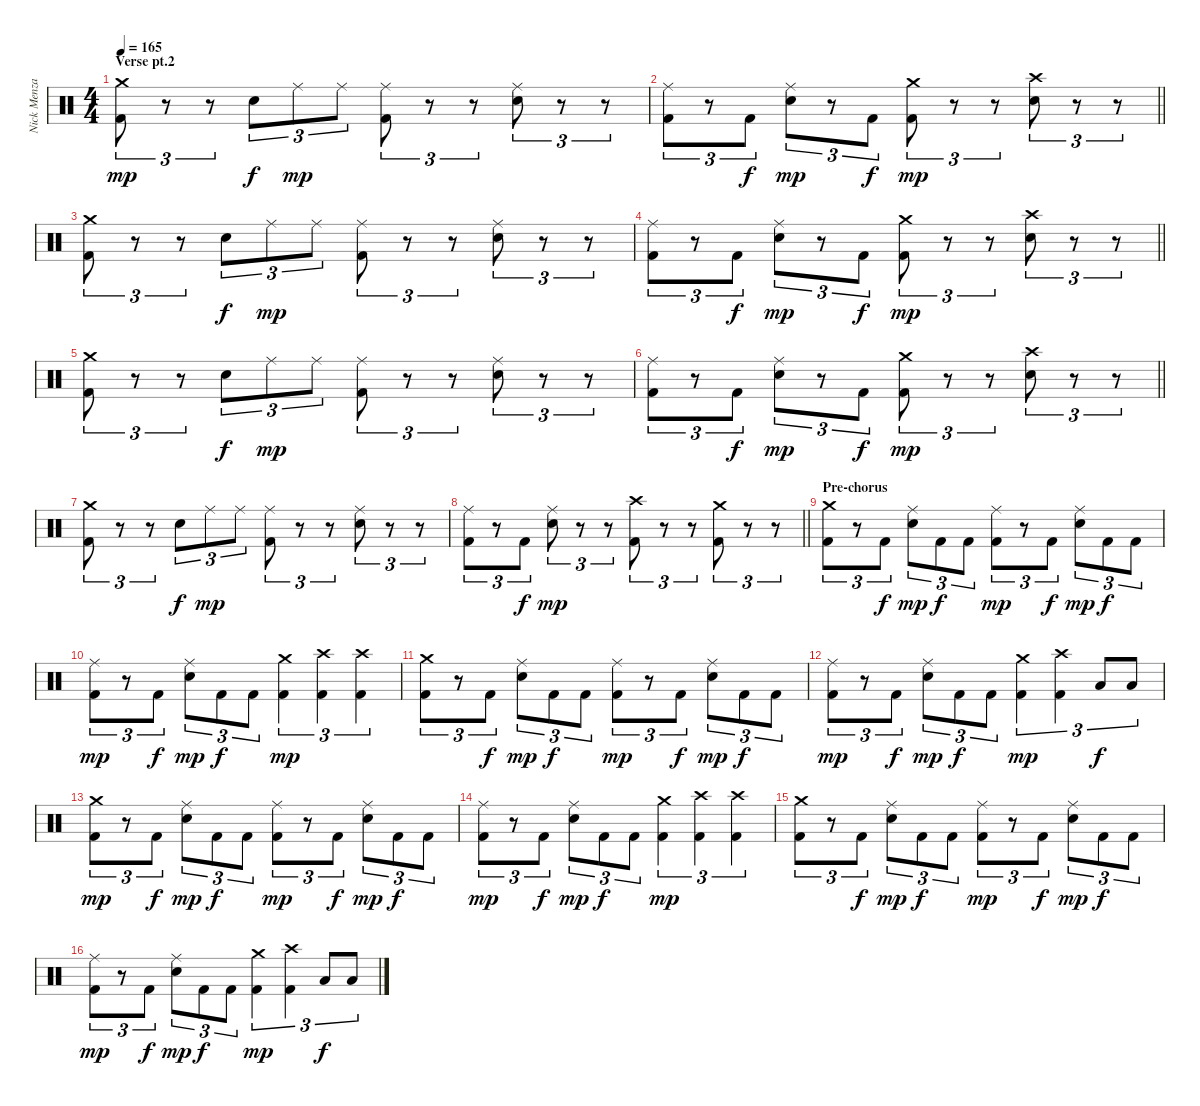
\track ("Nick Menza" "Nick Menza") {solo instrument percussion}
\staff {score}
\articulation defaults
\ts (4 4)
\section ("" "Verse pt.2")
\tempo 165
\clef neutral
\ks c
("Crash medium (hit)" "Kick (hit) 2").8{tu (3 2) dy mp} r.8{tu (3 2)} r.8{tu (3 2)} "Electric Snare (hit)".8{tu (3 2) dy f} "Ride (middle)".8{tu (3 2) dy mp} "Ride (middle)".8{tu (3 2)} ("Ride (middle)" "Kick (hit) 2").8{tu (3 2)} r.8{tu (3 2)} r.8{tu (3 2)} ("Ride (middle)" "Electric Snare (hit)").8{tu (3 2)} r.8{tu (3 2)} r.8{tu (3 2)} |
\barLineRight lightlight
("Ride (middle)" "Kick (hit) 2").8{tu (3 2)} r.8{tu (3 2)} "Kick (hit) 2".8{tu (3 2) dy f} ("Ride (middle)" "Electric Snare (hit)").8{tu (3 2) dy mp} r.8{tu (3 2)} "Kick (hit) 2".8{tu (3 2) dy f} ("Crash medium (hit)" "Kick (hit) 2").8{tu (3 2) dy mp} r.8{tu (3 2)} r.8{tu (3 2)} ("Crash high (hit)" "Electric Snare (hit)").8{tu (3 2)} r.8{tu (3 2)} r.8{tu (3 2)} |
("Crash medium (hit)" "Kick (hit) 2").8{tu (3 2)} r.8{tu (3 2)} r.8{tu (3 2)} "Electric Snare (hit)".8{tu (3 2) dy f} "Ride (middle)".8{tu (3 2) dy mp} "Ride (middle)".8{tu (3 2)} ("Ride (middle)" "Kick (hit) 2").8{tu (3 2)} r.8{tu (3 2)} r.8{tu (3 2)} ("Ride (middle)" "Electric Snare (hit)").8{tu (3 2)} r.8{tu (3 2)} r.8{tu (3 2)} |
\barLineRight lightlight
("Ride (middle)" "Kick (hit) 2").8{tu (3 2)} r.8{tu (3 2)} "Kick (hit) 2".8{tu (3 2) dy f} ("Ride (middle)" "Electric Snare (hit)").8{tu (3 2) dy mp} r.8{tu (3 2)} "Kick (hit) 2".8{tu (3 2) dy f} ("Crash medium (hit)" "Kick (hit) 2").8{tu (3 2) dy mp} r.8{tu (3 2)} r.8{tu (3 2)} ("Crash high (hit)" "Electric Snare (hit)").8{tu (3 2)} r.8{tu (3 2)} r.8{tu (3 2)} |
("Crash medium (hit)" "Kick (hit) 2").8{tu (3 2)} r.8{tu (3 2)} r.8{tu (3 2)} "Electric Snare (hit)".8{tu (3 2) dy f} "Ride (middle)".8{tu (3 2) dy mp} "Ride (middle)".8{tu (3 2)} ("Ride (middle)" "Kick (hit) 2").8{tu (3 2)} r.8{tu (3 2)} r.8{tu (3 2)} ("Ride (middle)" "Electric Snare (hit)").8{tu (3 2)} r.8{tu (3 2)} r.8{tu (3 2)} |
\barLineRight lightlight
("Ride (middle)" "Kick (hit) 2").8{tu (3 2)} r.8{tu (3 2)} "Kick (hit) 2".8{tu (3 2) dy f} ("Ride (middle)" "Electric Snare (hit)").8{tu (3 2) dy mp} r.8{tu (3 2)} "Kick (hit) 2".8{tu (3 2) dy f} ("Crash medium (hit)" "Kick (hit) 2").8{tu (3 2) dy mp} r.8{tu (3 2)} r.8{tu (3 2)} ("Crash high (hit)" "Electric Snare (hit)").8{tu (3 2)} r.8{tu (3 2)} r.8{tu (3 2)} |
("Crash medium (hit)" "Kick (hit) 2").8{tu (3 2)} r.8{tu (3 2)} r.8{tu (3 2)} "Electric Snare (hit)".8{tu (3 2) dy f} "Ride (middle)".8{tu (3 2) dy mp} "Ride (middle)".8{tu (3 2)} ("Ride (middle)" "Kick (hit) 2").8{tu (3 2)} r.8{tu (3 2)} r.8{tu (3 2)} ("Ride (middle)" "Electric Snare (hit)").8{tu (3 2)} r.8{tu (3 2)} r.8{tu (3 2)} |
\barLineRight lightlight
("Ride (middle)" "Kick (hit) 2").8{tu (3 2)} r.8{tu (3 2)} "Kick (hit) 2".8{tu (3 2) dy f} ("Ride (middle)" "Electric Snare (hit)").8{tu (3 2) dy mp} r.8{tu (3 2)} r.8{tu (3 2)} ("Crash high (hit)" "Kick (hit) 2").8{tu (3 2)} r.8{tu (3 2)} r.8{tu (3 2)} ("Crash medium (hit)" "Kick (hit) 2").8{tu (3 2)} r.8{tu (3 2)} r.8{tu (3 2)} |
\section ("" "Pre-chorus")
("Crash medium (hit)" "Kick (hit) 2").8{tu (3 2)} r.8{tu (3 2)} "Kick (hit) 2".8{tu (3 2) dy f} ("Ride (middle)" "Electric Snare (hit)").8{tu (3 2) dy mp} "Kick (hit) 2".8{tu (3 2) dy f} "Kick (hit) 2".8{tu (3 2)} ("Ride (middle)" "Kick (hit) 2").8{tu (3 2) dy mp} r.8{tu (3 2)} "Kick (hit) 2".8{tu (3 2) dy f} ("Ride (middle)" "Electric Snare (hit)").8{tu (3 2) dy mp} "Kick (hit) 2".8{tu (3 2) dy f} "Kick (hit) 2".8{tu (3 2)} |
("Ride (middle)" "Kick (hit) 2").8{tu (3 2) dy mp} r.8{tu (3 2)} "Kick (hit) 2".8{tu (3 2) dy f} ("Ride (middle)" "Electric Snare (hit)").8{tu (3 2) dy mp} "Kick (hit) 2".8{tu (3 2) dy f} "Kick (hit) 2".8{tu (3 2)} ("Crash medium (hit)" "Kick (hit) 2").4{tu (3 2) dy mp} ("Crash high (hit)" "Kick (hit) 2").4{tu (3 2)} ("Crash high (hit)" "Kick (hit) 2").4{tu (3 2)} |
("Crash medium (hit)" "Kick (hit) 2").8{tu (3 2)} r.8{tu (3 2)} "Kick (hit) 2".8{tu (3 2) dy f} ("Ride (middle)" "Electric Snare (hit)").8{tu (3 2) dy mp} "Kick (hit) 2".8{tu (3 2) dy f} "Kick (hit) 2".8{tu (3 2)} ("Ride (middle)" "Kick (hit) 2").8{tu (3 2) dy mp} r.8{tu (3 2)} "Kick (hit) 2".8{tu (3 2) dy f} ("Ride (middle)" "Electric Snare (hit)").8{tu (3 2) dy mp} "Kick (hit) 2".8{tu (3 2) dy f} "Kick (hit) 2".8{tu (3 2)} |
("Ride (middle)" "Kick (hit) 2").8{tu (3 2) dy mp} r.8{tu (3 2)} "Kick (hit) 2".8{tu (3 2) dy f} ("Ride (middle)" "Electric Snare (hit)").8{tu (3 2) dy mp} "Kick (hit) 2".8{tu (3 2) dy f} "Kick (hit) 2".8{tu (3 2)} ("Crash medium (hit)" "Kick (hit) 2").4{tu (3 2) dy mp} ("Crash high (hit)" "Kick (hit) 2").4{tu (3 2)} "Low Tom (hit)".8{tu (3 2) dy f} "Low Tom (hit)".8{tu (3 2)} |
("Crash medium (hit)" "Kick (hit) 2").8{tu (3 2) dy mp} r.8{tu (3 2)} "Kick (hit) 2".8{tu (3 2) dy f} ("Ride (middle)" "Electric Snare (hit)").8{tu (3 2) dy mp} "Kick (hit) 2".8{tu (3 2) dy f} "Kick (hit) 2".8{tu (3 2)} ("Ride (middle)" "Kick (hit) 2").8{tu (3 2) dy mp} r.8{tu (3 2)} "Kick (hit) 2".8{tu (3 2) dy f} ("Ride (middle)" "Electric Snare (hit)").8{tu (3 2) dy mp} "Kick (hit) 2".8{tu (3 2) dy f} "Kick (hit) 2".8{tu (3 2)} |
("Ride (middle)" "Kick (hit) 2").8{tu (3 2) dy mp} r.8{tu (3 2)} "Kick (hit) 2".8{tu (3 2) dy f} ("Ride (middle)" "Electric Snare (hit)").8{tu (3 2) dy mp} "Kick (hit) 2".8{tu (3 2) dy f} "Kick (hit) 2".8{tu (3 2)} ("Crash medium (hit)" "Kick (hit) 2").4{tu (3 2) dy mp} ("Crash high (hit)" "Kick (hit) 2").4{tu (3 2)} ("Crash high (hit)" "Kick (hit) 2").4{tu (3 2)} |
("Crash medium (hit)" "Kick (hit) 2").8{tu (3 2)} r.8{tu (3 2)} "Kick (hit) 2".8{tu (3 2) dy f} ("Ride (middle)" "Electric Snare (hit)").8{tu (3 2) dy mp} "Kick (hit) 2".8{tu (3 2) dy f} "Kick (hit) 2".8{tu (3 2)} ("Ride (middle)" "Kick (hit) 2").8{tu (3 2) dy mp} r.8{tu (3 2)} "Kick (hit) 2".8{tu (3 2) dy f} ("Ride (middle)" "Electric Snare (hit)").8{tu (3 2) dy mp} "Kick (hit) 2".8{tu (3 2) dy f} "Kick (hit) 2".8{tu (3 2)} |
("Ride (middle)" "Kick (hit) 2").8{tu (3 2) dy mp} r.8{tu (3 2)} "Kick (hit) 2".8{tu (3 2) dy f} ("Ride (middle)" "Electric Snare (hit)").8{tu (3 2) dy mp} "Kick (hit) 2".8{tu (3 2) dy f} "Kick (hit) 2".8{tu (3 2)} ("Crash medium (hit)" "Kick (hit) 2").4{tu (3 2) dy mp} ("Crash high (hit)" "Kick (hit) 2").4{tu (3 2)} "Low Tom (hit)".8{tu (3 2) dy f} "Low Tom (hit)".8{tu (3 2)}
